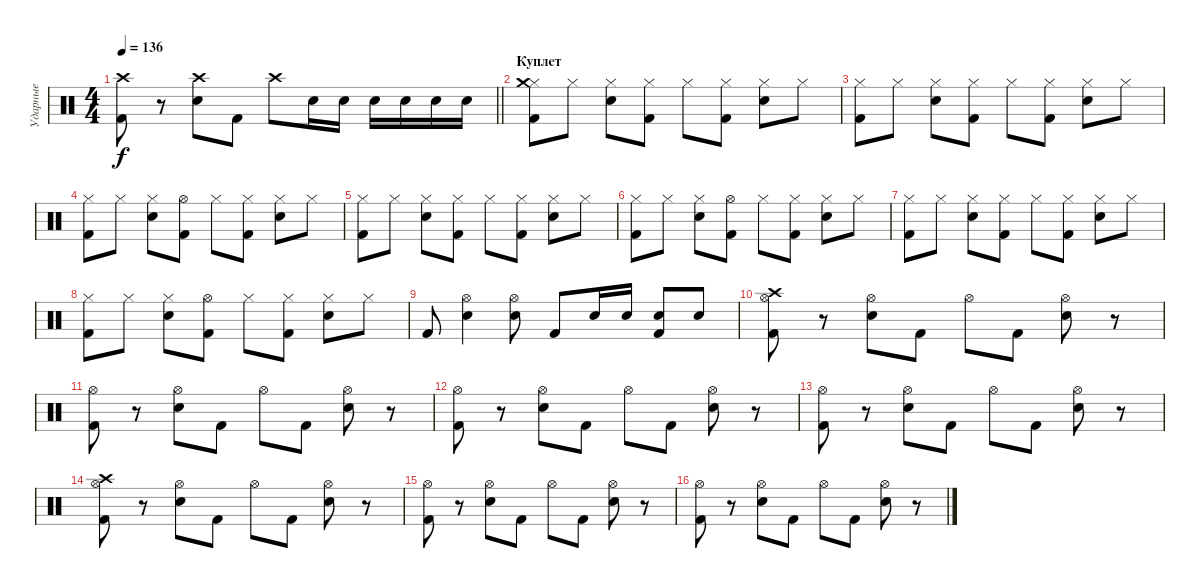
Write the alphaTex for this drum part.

\track ("Ударные" "Ударные") {instrument percussion}
\staff {score}
\articulation defaults
\ts (4 4)
\tempo 136
\clef neutral
\barLineRight lightlight
\ks c
("Crash high (hit)" "Kick (hit) 2").8{dy f} r.8 ("Crash high (hit)" "Electric Snare (hit)").8 "Kick (hit) 2".8 "Crash high (hit)".8 "Electric Snare (hit)".16 "Electric Snare (hit)".16 "Electric Snare (hit)".16 "Electric Snare (hit)".16 "Electric Snare (hit)".16 "Electric Snare (hit)".16 |
\section ("" "Куплет")
("Hi-Hat (closed)" "Crash medium (hit)" "Kick (hit) 2").8 "Hi-Hat (closed)".8 ("Hi-Hat (closed)" "Electric Snare (hit)").8 ("Hi-Hat (closed)" "Kick (hit) 2").8 "Hi-Hat (closed)".8 ("Hi-Hat (closed)" "Kick (hit) 2").8 ("Hi-Hat (closed)" "Electric Snare (hit)").8 "Hi-Hat (closed)".8 |
("Hi-Hat (closed)" "Kick (hit) 2").8 "Hi-Hat (closed)".8 ("Hi-Hat (closed)" "Electric Snare (hit)").8 ("Hi-Hat (closed)" "Kick (hit) 2").8 "Hi-Hat (closed)".8 ("Hi-Hat (closed)" "Kick (hit) 2").8 ("Hi-Hat (closed)" "Electric Snare (hit)").8 "Hi-Hat (closed)".8 |
("Hi-Hat (closed)" "Kick (hit) 2").8 "Hi-Hat (closed)".8 ("Hi-Hat (closed)" "Electric Snare (hit)").8 ("Hi-Hat (open)" "Kick (hit) 2").8 "Hi-Hat (closed)".8 ("Hi-Hat (closed)" "Kick (hit) 2").8 ("Hi-Hat (closed)" "Electric Snare (hit)").8 "Hi-Hat (closed)".8 |
("Hi-Hat (closed)" "Kick (hit) 2").8 "Hi-Hat (closed)".8 ("Hi-Hat (closed)" "Electric Snare (hit)").8 ("Hi-Hat (closed)" "Kick (hit) 2").8 "Hi-Hat (closed)".8 ("Hi-Hat (closed)" "Kick (hit) 2").8 ("Hi-Hat (closed)" "Electric Snare (hit)").8 "Hi-Hat (closed)".8 |
("Hi-Hat (closed)" "Kick (hit) 2").8 "Hi-Hat (closed)".8 ("Hi-Hat (closed)" "Electric Snare (hit)").8 ("Hi-Hat (open)" "Kick (hit) 2").8 "Hi-Hat (closed)".8 ("Hi-Hat (closed)" "Kick (hit) 2").8 ("Hi-Hat (closed)" "Electric Snare (hit)").8 "Hi-Hat (closed)".8 |
("Hi-Hat (closed)" "Kick (hit) 2").8 "Hi-Hat (closed)".8 ("Hi-Hat (closed)" "Electric Snare (hit)").8 ("Hi-Hat (closed)" "Kick (hit) 2").8 "Hi-Hat (closed)".8 ("Hi-Hat (closed)" "Kick (hit) 2").8 ("Hi-Hat (closed)" "Electric Snare (hit)").8 "Hi-Hat (closed)".8 |
("Hi-Hat (closed)" "Kick (hit) 2").8 "Hi-Hat (closed)".8 ("Hi-Hat (closed)" "Electric Snare (hit)").8 ("Hi-Hat (open)" "Kick (hit) 2").8 "Hi-Hat (closed)".8 ("Hi-Hat (closed)" "Kick (hit) 2").8 ("Hi-Hat (closed)" "Electric Snare (hit)").8 "Hi-Hat (closed)".8 |
"Kick (hit) 2".8 ("Hi-Hat (open)" "Electric Snare (hit)").4 ("Hi-Hat (open)" "Electric Snare (hit)").8 "Kick (hit) 2".8 "Electric Snare (hit)".16 "Electric Snare (hit)".16 ("Electric Snare (hit)" "Kick (hit) 2").8 "Electric Snare (hit)".8 |
("Hi-Hat (open)" "Crash high (hit)" "Kick (hit) 2").8 r.8 ("Hi-Hat (open)" "Electric Snare (hit)").8 "Kick (hit) 2".8 "Hi-Hat (open)".8 "Kick (hit) 2".8 ("Hi-Hat (open)" "Electric Snare (hit)").8 r.8 |
("Hi-Hat (open)" "Kick (hit) 2").8 r.8 ("Hi-Hat (open)" "Electric Snare (hit)").8 "Kick (hit) 2".8 "Hi-Hat (open)".8 "Kick (hit) 2".8 ("Hi-Hat (open)" "Electric Snare (hit)").8 r.8 |
("Hi-Hat (open)" "Kick (hit) 2").8 r.8 ("Hi-Hat (open)" "Electric Snare (hit)").8 "Kick (hit) 2".8 "Hi-Hat (open)".8 "Kick (hit) 2".8 ("Hi-Hat (open)" "Electric Snare (hit)").8 r.8 |
("Hi-Hat (open)" "Kick (hit) 2").8 r.8 ("Hi-Hat (open)" "Electric Snare (hit)").8 "Kick (hit) 2".8 "Hi-Hat (open)".8 "Kick (hit) 2".8 ("Hi-Hat (open)" "Electric Snare (hit)").8 r.8 |
("Hi-Hat (open)" "Crash high (hit)" "Kick (hit) 2").8 r.8 ("Hi-Hat (open)" "Electric Snare (hit)").8 "Kick (hit) 2".8 "Hi-Hat (open)".8 "Kick (hit) 2".8 ("Hi-Hat (open)" "Electric Snare (hit)").8 r.8 |
("Hi-Hat (open)" "Kick (hit) 2").8 r.8 ("Hi-Hat (open)" "Electric Snare (hit)").8 "Kick (hit) 2".8 "Hi-Hat (open)".8 "Kick (hit) 2".8 ("Hi-Hat (open)" "Electric Snare (hit)").8 r.8 |
("Hi-Hat (open)" "Kick (hit) 2").8 r.8 ("Hi-Hat (open)" "Electric Snare (hit)").8 "Kick (hit) 2".8 "Hi-Hat (open)".8 "Kick (hit) 2".8 ("Hi-Hat (open)" "Electric Snare (hit)").8 r.8
